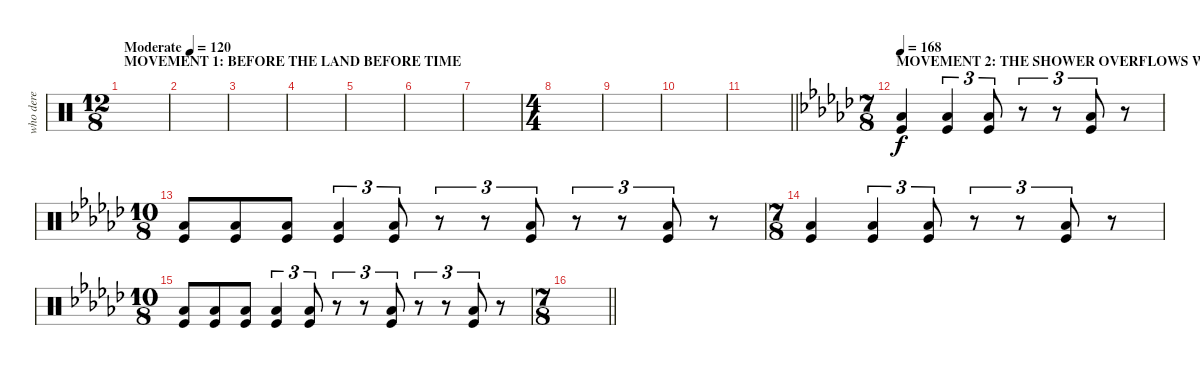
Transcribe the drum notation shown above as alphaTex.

\track ("who dere" "who dere") {instrument percussion}
\staff {score}
\articulation defaults
\ts (12 8)
\section ("" "MOVEMENT 1: BEFORE THE LAND BEFORE TIME")
\tempo (120 "Moderate")
\clef neutral
\ks c
|
|
|
|
|
|
|
\ts (4 4)
|
|
|
\barLineRight lightlight
|
\ts (7 8)
\section ("" "MOVEMENT 2: THE SHOWER OVERFLOWS WITH MY TEARS")
\tempo 130
\tempo 168
\ks gb
("Kick (hit)" "Low Floor Tom (hit)").4 ("Kick (hit)" "Low Floor Tom (hit)").4{tu (3 2)} ("Kick (hit)" "Low Floor Tom (hit)").8{tu (3 2)} r.8{tu (3 2)} r.8{tu (3 2)} ("Kick (hit)" "Low Floor Tom (hit)").8{tu (3 2)} r.8 |
\ts (10 8)
("Kick (hit)" "Low Floor Tom (hit)").8 ("Kick (hit)" "Low Floor Tom (hit)").8 ("Kick (hit)" "Low Floor Tom (hit)").8 ("Kick (hit)" "Low Floor Tom (hit)").4{tu (3 2)} ("Kick (hit)" "Low Floor Tom (hit)").8{tu (3 2)} r.8{tu (3 2)} r.8{tu (3 2)} ("Kick (hit)" "Low Floor Tom (hit)").8{tu (3 2)} r.8{tu (3 2)} r.8{tu (3 2)} ("Kick (hit)" "Low Floor Tom (hit)").8{tu (3 2)} r.8 |
\ts (7 8)
("Kick (hit)" "Low Floor Tom (hit)").4 ("Kick (hit)" "Low Floor Tom (hit)").4{tu (3 2)} ("Kick (hit)" "Low Floor Tom (hit)").8{tu (3 2)} r.8{tu (3 2)} r.8{tu (3 2)} ("Kick (hit)" "Low Floor Tom (hit)").8{tu (3 2)} r.8 |
\ts (10 8)
("Kick (hit)" "Low Floor Tom (hit)").8 ("Kick (hit)" "Low Floor Tom (hit)").8 ("Kick (hit)" "Low Floor Tom (hit)").8 ("Kick (hit)" "Low Floor Tom (hit)").4{tu (3 2)} ("Kick (hit)" "Low Floor Tom (hit)").8{tu (3 2)} r.8{tu (3 2)} r.8{tu (3 2)} ("Kick (hit)" "Low Floor Tom (hit)").8{tu (3 2)} r.8{tu (3 2)} r.8{tu (3 2)} ("Kick (hit)" "Low Floor Tom (hit)").8{tu (3 2)} r.8 |
\ts (7 8)
\barLineRight lightlight
